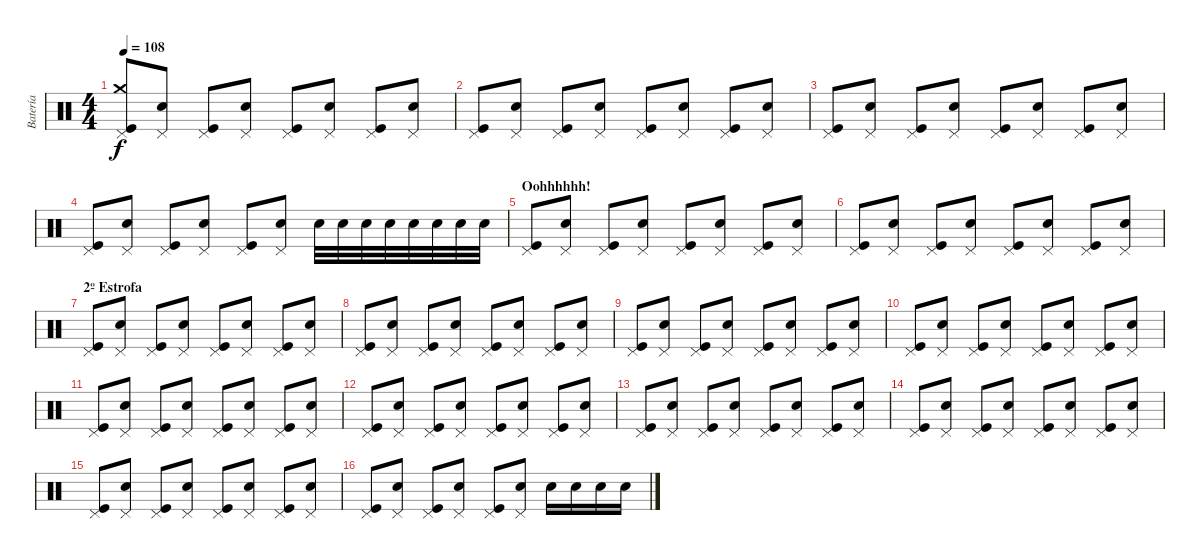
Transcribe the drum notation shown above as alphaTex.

\track ("Batería" "Batería") {instrument percussion}
\staff {score}
\articulation defaults
\ts (4 4)
\tempo 108
\clef neutral
\ks c
("Pedal Hi-Hat (hit)" "Crash medium (hit)" "Kick (hit)").8{dy f} ("Pedal Hi-Hat (hit)" "Electric Snare (hit)").8 ("Pedal Hi-Hat (hit)" "Kick (hit)").8 ("Pedal Hi-Hat (hit)" "Electric Snare (hit)").8 ("Pedal Hi-Hat (hit)" "Kick (hit)").8 ("Pedal Hi-Hat (hit)" "Electric Snare (hit)").8 ("Pedal Hi-Hat (hit)" "Kick (hit)").8 ("Pedal Hi-Hat (hit)" "Electric Snare (hit)").8 |
("Pedal Hi-Hat (hit)" "Kick (hit)").8 ("Pedal Hi-Hat (hit)" "Electric Snare (hit)").8 ("Pedal Hi-Hat (hit)" "Kick (hit)").8 ("Pedal Hi-Hat (hit)" "Electric Snare (hit)").8 ("Pedal Hi-Hat (hit)" "Kick (hit)").8 ("Pedal Hi-Hat (hit)" "Electric Snare (hit)").8 ("Pedal Hi-Hat (hit)" "Kick (hit)").8 ("Pedal Hi-Hat (hit)" "Electric Snare (hit)").8 |
("Pedal Hi-Hat (hit)" "Kick (hit)").8 ("Pedal Hi-Hat (hit)" "Electric Snare (hit)").8 ("Pedal Hi-Hat (hit)" "Kick (hit)").8 ("Pedal Hi-Hat (hit)" "Electric Snare (hit)").8 ("Pedal Hi-Hat (hit)" "Kick (hit)").8 ("Pedal Hi-Hat (hit)" "Electric Snare (hit)").8 ("Pedal Hi-Hat (hit)" "Kick (hit)").8 ("Pedal Hi-Hat (hit)" "Electric Snare (hit)").8 |
("Pedal Hi-Hat (hit)" "Kick (hit)").8 ("Pedal Hi-Hat (hit)" "Electric Snare (hit)").8 ("Pedal Hi-Hat (hit)" "Kick (hit)").8 ("Pedal Hi-Hat (hit)" "Electric Snare (hit)").8 ("Pedal Hi-Hat (hit)" "Kick (hit)").8 ("Pedal Hi-Hat (hit)" "Electric Snare (hit)").8 "Electric Snare (hit)".32 "Electric Snare (hit)".32 "Electric Snare (hit)".32 "Electric Snare (hit)".32 "Electric Snare (hit)".32 "Electric Snare (hit)".32 "Electric Snare (hit)".32 "Electric Snare (hit)".32 |
\section ("" "Oohhhhhh!")
("Pedal Hi-Hat (hit)" "Kick (hit)").8 ("Pedal Hi-Hat (hit)" "Electric Snare (hit)").8 ("Pedal Hi-Hat (hit)" "Kick (hit)").8 ("Pedal Hi-Hat (hit)" "Electric Snare (hit)").8 ("Pedal Hi-Hat (hit)" "Kick (hit)").8 ("Pedal Hi-Hat (hit)" "Electric Snare (hit)").8 ("Pedal Hi-Hat (hit)" "Kick (hit)").8 ("Pedal Hi-Hat (hit)" "Electric Snare (hit)").8 |
("Pedal Hi-Hat (hit)" "Kick (hit)").8 ("Pedal Hi-Hat (hit)" "Electric Snare (hit)").8 ("Pedal Hi-Hat (hit)" "Kick (hit)").8 ("Pedal Hi-Hat (hit)" "Electric Snare (hit)").8 ("Pedal Hi-Hat (hit)" "Kick (hit)").8 ("Pedal Hi-Hat (hit)" "Electric Snare (hit)").8 ("Pedal Hi-Hat (hit)" "Kick (hit)").8 ("Pedal Hi-Hat (hit)" "Electric Snare (hit)").8 |
\section ("" "2º Estrofa")
("Pedal Hi-Hat (hit)" "Kick (hit)").8 ("Pedal Hi-Hat (hit)" "Electric Snare (hit)").8 ("Pedal Hi-Hat (hit)" "Kick (hit)").8 ("Pedal Hi-Hat (hit)" "Electric Snare (hit)").8 ("Pedal Hi-Hat (hit)" "Kick (hit)").8 ("Pedal Hi-Hat (hit)" "Electric Snare (hit)").8 ("Pedal Hi-Hat (hit)" "Kick (hit)").8 ("Pedal Hi-Hat (hit)" "Electric Snare (hit)").8 |
("Pedal Hi-Hat (hit)" "Kick (hit)").8 ("Pedal Hi-Hat (hit)" "Electric Snare (hit)").8 ("Pedal Hi-Hat (hit)" "Kick (hit)").8 ("Pedal Hi-Hat (hit)" "Electric Snare (hit)").8 ("Pedal Hi-Hat (hit)" "Kick (hit)").8 ("Pedal Hi-Hat (hit)" "Electric Snare (hit)").8 ("Pedal Hi-Hat (hit)" "Kick (hit)").8 ("Pedal Hi-Hat (hit)" "Electric Snare (hit)").8 |
("Pedal Hi-Hat (hit)" "Kick (hit)").8 ("Pedal Hi-Hat (hit)" "Electric Snare (hit)").8 ("Pedal Hi-Hat (hit)" "Kick (hit)").8 ("Pedal Hi-Hat (hit)" "Electric Snare (hit)").8 ("Pedal Hi-Hat (hit)" "Kick (hit)").8 ("Pedal Hi-Hat (hit)" "Electric Snare (hit)").8 ("Pedal Hi-Hat (hit)" "Kick (hit)").8 ("Pedal Hi-Hat (hit)" "Electric Snare (hit)").8 |
("Pedal Hi-Hat (hit)" "Kick (hit)").8 ("Pedal Hi-Hat (hit)" "Electric Snare (hit)").8 ("Pedal Hi-Hat (hit)" "Kick (hit)").8 ("Pedal Hi-Hat (hit)" "Electric Snare (hit)").8 ("Pedal Hi-Hat (hit)" "Kick (hit)").8 ("Pedal Hi-Hat (hit)" "Electric Snare (hit)").8 ("Pedal Hi-Hat (hit)" "Kick (hit)").8 ("Pedal Hi-Hat (hit)" "Electric Snare (hit)").8 |
("Pedal Hi-Hat (hit)" "Kick (hit)").8 ("Pedal Hi-Hat (hit)" "Electric Snare (hit)").8 ("Pedal Hi-Hat (hit)" "Kick (hit)").8 ("Pedal Hi-Hat (hit)" "Electric Snare (hit)").8 ("Pedal Hi-Hat (hit)" "Kick (hit)").8 ("Pedal Hi-Hat (hit)" "Electric Snare (hit)").8 ("Pedal Hi-Hat (hit)" "Kick (hit)").8 ("Pedal Hi-Hat (hit)" "Electric Snare (hit)").8 |
("Pedal Hi-Hat (hit)" "Kick (hit)").8 ("Pedal Hi-Hat (hit)" "Electric Snare (hit)").8 ("Pedal Hi-Hat (hit)" "Kick (hit)").8 ("Pedal Hi-Hat (hit)" "Electric Snare (hit)").8 ("Pedal Hi-Hat (hit)" "Kick (hit)").8 ("Pedal Hi-Hat (hit)" "Electric Snare (hit)").8 ("Pedal Hi-Hat (hit)" "Kick (hit)").8 ("Pedal Hi-Hat (hit)" "Electric Snare (hit)").8 |
("Pedal Hi-Hat (hit)" "Kick (hit)").8 ("Pedal Hi-Hat (hit)" "Electric Snare (hit)").8 ("Pedal Hi-Hat (hit)" "Kick (hit)").8 ("Pedal Hi-Hat (hit)" "Electric Snare (hit)").8 ("Pedal Hi-Hat (hit)" "Kick (hit)").8 ("Pedal Hi-Hat (hit)" "Electric Snare (hit)").8 ("Pedal Hi-Hat (hit)" "Kick (hit)").8 ("Pedal Hi-Hat (hit)" "Electric Snare (hit)").8 |
("Pedal Hi-Hat (hit)" "Kick (hit)").8 ("Pedal Hi-Hat (hit)" "Electric Snare (hit)").8 ("Pedal Hi-Hat (hit)" "Kick (hit)").8 ("Pedal Hi-Hat (hit)" "Electric Snare (hit)").8 ("Pedal Hi-Hat (hit)" "Kick (hit)").8 ("Pedal Hi-Hat (hit)" "Electric Snare (hit)").8 ("Pedal Hi-Hat (hit)" "Kick (hit)").8 ("Pedal Hi-Hat (hit)" "Electric Snare (hit)").8 |
("Pedal Hi-Hat (hit)" "Kick (hit)").8 ("Pedal Hi-Hat (hit)" "Electric Snare (hit)").8 ("Pedal Hi-Hat (hit)" "Kick (hit)").8 ("Pedal Hi-Hat (hit)" "Electric Snare (hit)").8 ("Pedal Hi-Hat (hit)" "Kick (hit)").8 ("Pedal Hi-Hat (hit)" "Electric Snare (hit)").8 ("Pedal Hi-Hat (hit)" "Kick (hit)").8 ("Pedal Hi-Hat (hit)" "Electric Snare (hit)").8 |
("Pedal Hi-Hat (hit)" "Kick (hit)").8 ("Pedal Hi-Hat (hit)" "Electric Snare (hit)").8 ("Pedal Hi-Hat (hit)" "Kick (hit)").8 ("Pedal Hi-Hat (hit)" "Electric Snare (hit)").8 ("Pedal Hi-Hat (hit)" "Kick (hit)").8 ("Pedal Hi-Hat (hit)" "Electric Snare (hit)").8 "Electric Snare (hit)".16 "Electric Snare (hit)".16 "Electric Snare (hit)".16 "Electric Snare (hit)".16
